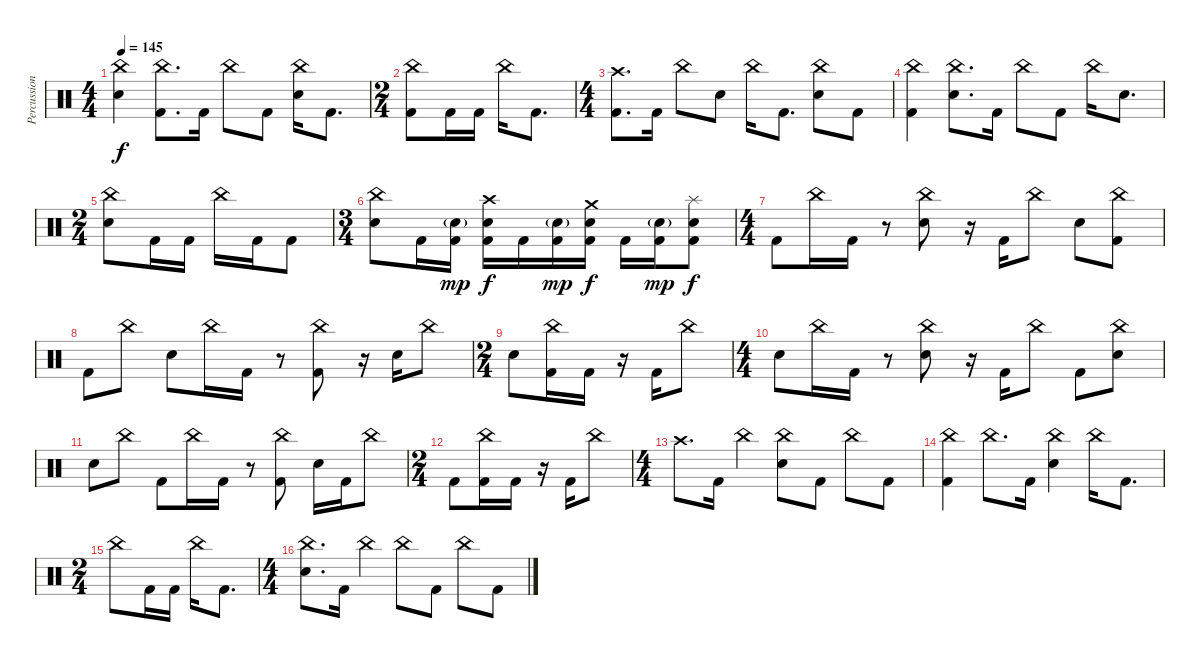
\track ("Percussion" "Percussion") {instrument percussion}
\staff {score}
\articulation defaults
\ts (4 4)
\tempo 145
\clef neutral
\ks c
("China (hit)" "Electric Snare (hit)").4{dy f} ("China (hit)" "Kick (hit) 2").8{d} "Kick (hit) 2".16 "China (hit)".8 "Kick (hit) 2".8 ("China (hit)" "Electric Snare (hit)").16 "Kick (hit) 2".8{d} |
\ts (2 4)
("China (hit)" "Kick (hit) 2").8 "Kick (hit) 2".16 "Kick (hit) 2".16 "China (hit)".16 "Kick (hit) 2".8{d} |
\ts (4 4)
("Crash high (hit)" "Kick (hit) 2").8{d} "Kick (hit) 2".16 "China (hit)".8 "Electric Snare (hit)".8 "China (hit)".16 "Kick (hit) 2".8{d} ("China (hit)" "Electric Snare (hit)").8 "Kick (hit) 2".8 |
("China (hit)" "Kick (hit) 2").4 ("China (hit)" "Electric Snare (hit)").8{d} "Kick (hit) 2".16 "China (hit)".8 "Kick (hit) 2".8 "China (hit)".16 "Electric Snare (hit)".8{d} |
\ts (2 4)
("China (hit)" "Electric Snare (hit)").8 "Kick (hit) 2".16 "Kick (hit) 2".16 "China (hit)".16 "Kick (hit) 2".16 "Kick (hit) 2".8 |
\ts (3 4)
("China (hit)" "Electric Snare (hit)").8 "Kick (hit) 2".16 ("Electric Snare (hit)"{g} "Kick (hit) 2").16{dy mp} ("Crash high (hit)" "Electric Snare (hit)" "Kick (hit) 2").16{dy f} "Kick (hit) 2".16 ("Electric Snare (hit)"{g} "Kick (hit) 2").16{dy mp} ("Crash medium (hit)" "Electric Snare (hit)" "Kick (hit) 2").16{dy f} "Kick (hit) 2".16 ("Electric Snare (hit)"{g} "Kick (hit) 2").16{dy mp} ("Splash (hit)" "Electric Snare (hit)" "Kick (hit) 2").8{dy f} |
\ts (4 4)
"Kick (hit) 2".8 "China (hit)".16 "Kick (hit) 2".16 r.8 ("China (hit)" "Electric Snare (hit)").8 r.16 "Kick (hit) 2".16 "China (hit)".8 "Electric Snare (hit)".8 ("China (hit)" "Kick (hit) 2").8 |
"Kick (hit) 2".8 "China (hit)".8 "Electric Snare (hit)".8 "China (hit)".16 "Kick (hit) 2".16 r.8 ("China (hit)" "Kick (hit) 2").8 r.16 "Electric Snare (hit)".16 "China (hit)".8 |
\ts (2 4)
"Electric Snare (hit)".8 ("China (hit)" "Kick (hit) 2").16 "Kick (hit) 2".16 r.16 "Kick (hit) 2".16 "China (hit)".8 |
\ts (4 4)
"Electric Snare (hit)".8 "China (hit)".16 "Kick (hit) 2".16 r.8 ("China (hit)" "Electric Snare (hit)").8 r.16 "Kick (hit) 2".16 "China (hit)".8 "Kick (hit) 2".8 ("China (hit)" "Electric Snare (hit)").8 |
"Electric Snare (hit)".8 "China (hit)".8 "Kick (hit) 2".8 "China (hit)".16 "Kick (hit) 2".16 r.8 ("China (hit)" "Kick (hit) 2").8 "Electric Snare (hit)".16 "Kick (hit) 2".16 "China (hit)".8 |
\ts (2 4)
"Kick (hit) 2".8 ("China (hit)" "Kick (hit) 2").16 "Kick (hit) 2".16 r.16 "Kick (hit) 2".16 "China (hit)".8 |
\ts (4 4)
"Crash high (hit)".8{d} "Kick (hit) 2".16 "China (hit)".4 ("China (hit)" "Electric Snare (hit)").8 "Kick (hit) 2".8 "China (hit)".8 "Kick (hit) 2".8 |
("China (hit)" "Kick (hit) 2").4 "China (hit)".8{d} "Kick (hit) 2".16 ("China (hit)" "Electric Snare (hit)").4 "China (hit)".16 "Kick (hit) 2".8{d} |
\ts (2 4)
"China (hit)".8 "Kick (hit) 2".16 "Kick (hit) 2".16 "China (hit)".16 "Kick (hit) 2".8{d} |
\ts (4 4)
("China (hit)" "Electric Snare (hit)").8{d} "Kick (hit) 2".16 "China (hit)".4 "China (hit)".8 "Kick (hit) 2".8 "China (hit)".8 "Kick (hit) 2".8
